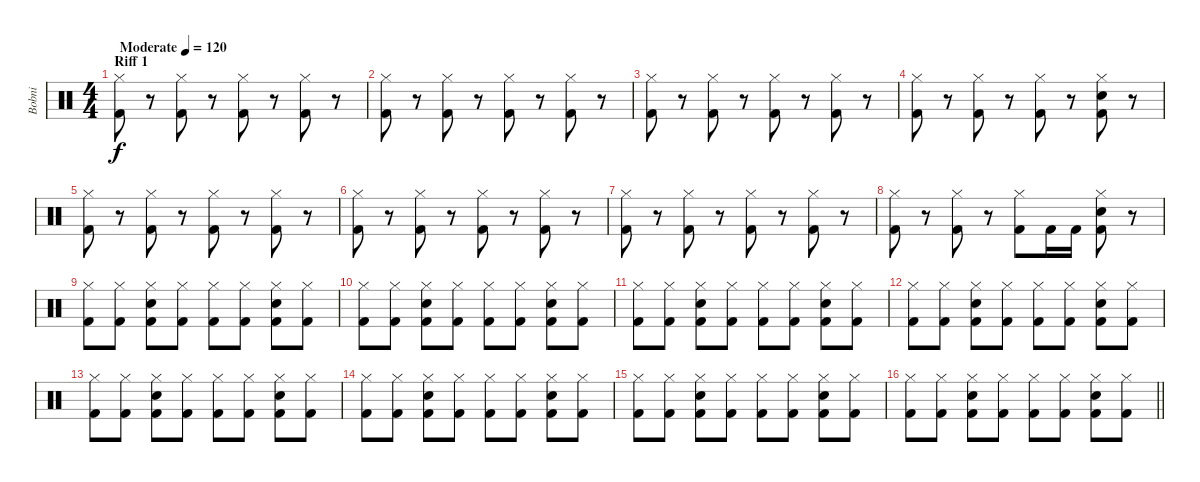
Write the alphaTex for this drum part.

\track ("Bobni" "Bobni") {instrument percussion}
\staff {score}
\articulation defaults
\ts (4 4)
\section ("" "Riff 1")
\tempo (120 "Moderate")
\tempo 150
\tempo (120 "Moderate")
\clef neutral
\ks c
("Hi-Hat (closed)" "Kick (hit) 2").8{dy f} r.8 ("Hi-Hat (closed)" "Kick (hit) 2").8 r.8 ("Hi-Hat (closed)" "Kick (hit) 2").8 r.8 ("Hi-Hat (closed)" "Kick (hit) 2").8 r.8 |
("Hi-Hat (closed)" "Kick (hit) 2").8 r.8 ("Hi-Hat (closed)" "Kick (hit) 2").8 r.8 ("Hi-Hat (closed)" "Kick (hit) 2").8 r.8 ("Hi-Hat (closed)" "Kick (hit) 2").8 r.8 |
("Hi-Hat (closed)" "Kick (hit) 2").8 r.8 ("Hi-Hat (closed)" "Kick (hit) 2").8 r.8 ("Hi-Hat (closed)" "Kick (hit) 2").8 r.8 ("Hi-Hat (closed)" "Kick (hit) 2").8 r.8 |
("Hi-Hat (closed)" "Kick (hit) 2").8 r.8 ("Hi-Hat (closed)" "Kick (hit) 2").8 r.8 ("Hi-Hat (closed)" "Kick (hit) 2").8 r.8 ("Hi-Hat (closed)" "Electric Snare (hit)" "Kick (hit) 2").8 r.8 |
("Hi-Hat (closed)" "Kick (hit) 2").8 r.8 ("Hi-Hat (closed)" "Kick (hit) 2").8 r.8 ("Hi-Hat (closed)" "Kick (hit) 2").8 r.8 ("Hi-Hat (closed)" "Kick (hit) 2").8 r.8 |
("Hi-Hat (closed)" "Kick (hit) 2").8 r.8 ("Hi-Hat (closed)" "Kick (hit) 2").8 r.8 ("Hi-Hat (closed)" "Kick (hit) 2").8 r.8 ("Hi-Hat (closed)" "Kick (hit) 2").8 r.8 |
("Hi-Hat (closed)" "Kick (hit) 2").8 r.8 ("Hi-Hat (closed)" "Kick (hit) 2").8 r.8 ("Hi-Hat (closed)" "Kick (hit) 2").8 r.8 ("Hi-Hat (closed)" "Kick (hit) 2").8 r.8 |
("Hi-Hat (closed)" "Kick (hit) 2").8 r.8 ("Hi-Hat (closed)" "Kick (hit) 2").8 r.8 ("Hi-Hat (closed)" "Kick (hit) 2").8 "Kick (hit) 2".16 "Kick (hit) 2".16 ("Hi-Hat (closed)" "Electric Snare (hit)" "Kick (hit) 2").8 r.8 |
("Hi-Hat (closed)" "Kick (hit) 2").8 ("Hi-Hat (closed)" "Kick (hit) 2").8 ("Hi-Hat (closed)" "Electric Snare (hit)" "Kick (hit) 2").8 ("Hi-Hat (closed)" "Kick (hit) 2").8 ("Hi-Hat (closed)" "Kick (hit) 2").8 ("Hi-Hat (closed)" "Kick (hit) 2").8 ("Hi-Hat (closed)" "Electric Snare (hit)" "Kick (hit) 2").8 ("Hi-Hat (closed)" "Kick (hit) 2").8 |
("Hi-Hat (closed)" "Kick (hit) 2").8 ("Hi-Hat (closed)" "Kick (hit) 2").8 ("Hi-Hat (closed)" "Electric Snare (hit)" "Kick (hit) 2").8 ("Hi-Hat (closed)" "Kick (hit) 2").8 ("Hi-Hat (closed)" "Kick (hit) 2").8 ("Hi-Hat (closed)" "Kick (hit) 2").8 ("Hi-Hat (closed)" "Electric Snare (hit)" "Kick (hit) 2").8 ("Hi-Hat (closed)" "Kick (hit) 2").8 |
("Hi-Hat (closed)" "Kick (hit) 2").8 ("Hi-Hat (closed)" "Kick (hit) 2").8 ("Hi-Hat (closed)" "Electric Snare (hit)" "Kick (hit) 2").8 ("Hi-Hat (closed)" "Kick (hit) 2").8 ("Hi-Hat (closed)" "Kick (hit) 2").8 ("Hi-Hat (closed)" "Kick (hit) 2").8 ("Hi-Hat (closed)" "Electric Snare (hit)" "Kick (hit) 2").8 ("Hi-Hat (closed)" "Kick (hit) 2").8 |
("Hi-Hat (closed)" "Kick (hit) 2").8 ("Hi-Hat (closed)" "Kick (hit) 2").8 ("Hi-Hat (closed)" "Electric Snare (hit)" "Kick (hit) 2").8 ("Hi-Hat (closed)" "Kick (hit) 2").8 ("Hi-Hat (closed)" "Kick (hit) 2").8 ("Hi-Hat (closed)" "Kick (hit) 2").8 ("Hi-Hat (closed)" "Electric Snare (hit)" "Kick (hit) 2").8 ("Hi-Hat (closed)" "Kick (hit) 2").8 |
("Hi-Hat (closed)" "Kick (hit) 2").8 ("Hi-Hat (closed)" "Kick (hit) 2").8 ("Hi-Hat (closed)" "Electric Snare (hit)" "Kick (hit) 2").8 ("Hi-Hat (closed)" "Kick (hit) 2").8 ("Hi-Hat (closed)" "Kick (hit) 2").8 ("Hi-Hat (closed)" "Kick (hit) 2").8 ("Hi-Hat (closed)" "Electric Snare (hit)" "Kick (hit) 2").8 ("Hi-Hat (closed)" "Kick (hit) 2").8 |
("Hi-Hat (closed)" "Kick (hit) 2").8 ("Hi-Hat (closed)" "Kick (hit) 2").8 ("Hi-Hat (closed)" "Electric Snare (hit)" "Kick (hit) 2").8 ("Hi-Hat (closed)" "Kick (hit) 2").8 ("Hi-Hat (closed)" "Kick (hit) 2").8 ("Hi-Hat (closed)" "Kick (hit) 2").8 ("Hi-Hat (closed)" "Electric Snare (hit)" "Kick (hit) 2").8 ("Hi-Hat (closed)" "Kick (hit) 2").8 |
("Hi-Hat (closed)" "Kick (hit) 2").8 ("Hi-Hat (closed)" "Kick (hit) 2").8 ("Hi-Hat (closed)" "Electric Snare (hit)" "Kick (hit) 2").8 ("Hi-Hat (closed)" "Kick (hit) 2").8 ("Hi-Hat (closed)" "Kick (hit) 2").8 ("Hi-Hat (closed)" "Kick (hit) 2").8 ("Hi-Hat (closed)" "Electric Snare (hit)" "Kick (hit) 2").8 ("Hi-Hat (closed)" "Kick (hit) 2").8 |
\barLineRight lightlight
("Hi-Hat (closed)" "Kick (hit) 2").8 ("Hi-Hat (closed)" "Kick (hit) 2").8 ("Hi-Hat (closed)" "Electric Snare (hit)" "Kick (hit) 2").8 ("Hi-Hat (closed)" "Kick (hit) 2").8 ("Hi-Hat (closed)" "Kick (hit) 2").8 ("Hi-Hat (closed)" "Kick (hit) 2").8 ("Hi-Hat (closed)" "Electric Snare (hit)" "Kick (hit) 2").8 ("Hi-Hat (closed)" "Kick (hit) 2").8
